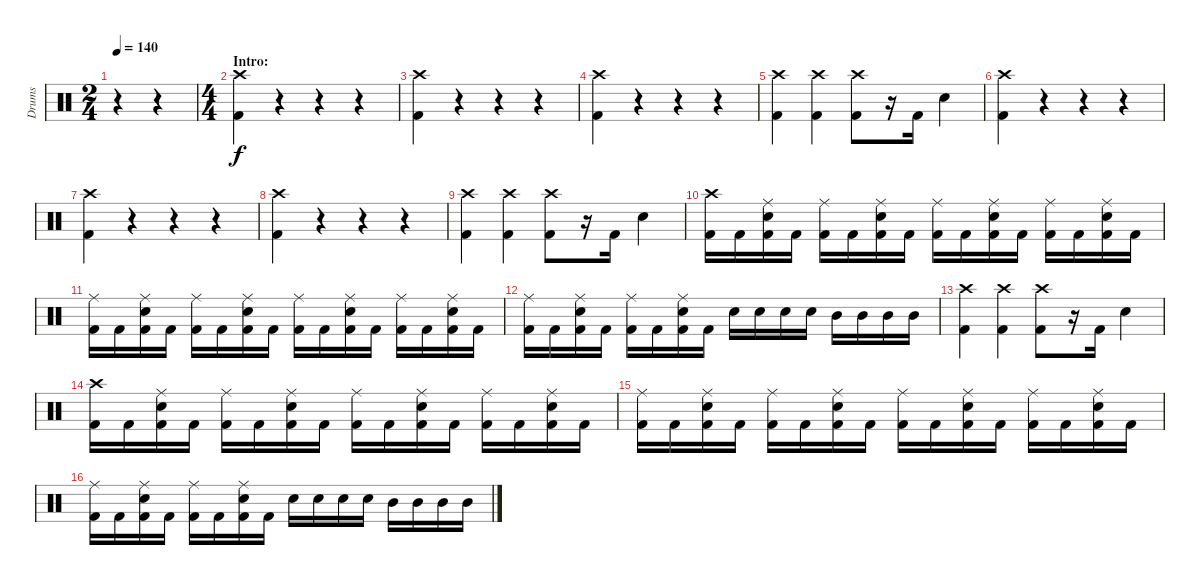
\track ("Drums" "Drums") {instrument percussion}
\staff {score}
\articulation defaults
\ts (2 4)
\tempo 140
\clef neutral
\ks c
r.4{dy f} r.4 |
\ts (4 4)
\section ("" "Intro:")
("Crash high (hit)" "Kick (hit) 2").4 r.4 r.4 r.4 |
("Crash high (hit)" "Kick (hit) 2").4 r.4 r.4 r.4 |
("Crash high (hit)" "Kick (hit) 2").4 r.4 r.4 r.4 |
("Crash high (hit)" "Kick (hit) 2").4 ("Crash high (hit)" "Kick (hit) 2").4 ("Crash high (hit)" "Kick (hit) 2").8 r.16 "Kick (hit) 2".16 "Electric Snare (hit)".4 |
("Crash high (hit)" "Kick (hit) 2").4 r.4 r.4 r.4 |
("Crash high (hit)" "Kick (hit) 2").4 r.4 r.4 r.4 |
("Crash high (hit)" "Kick (hit) 2").4 r.4 r.4 r.4 |
("Crash high (hit)" "Kick (hit) 2").4 ("Crash high (hit)" "Kick (hit) 2").4 ("Crash high (hit)" "Kick (hit) 2").8 r.16 "Kick (hit) 2".16 "Electric Snare (hit)".4 |
("Crash high (hit)" "Kick (hit) 2").16 "Kick (hit) 2".16 ("Ride (middle)" "Electric Snare (hit)" "Kick (hit) 2").16 "Kick (hit) 2".16 ("Ride (middle)" "Kick (hit) 2").16 "Kick (hit) 2".16 ("Ride (middle)" "Electric Snare (hit)" "Kick (hit) 2").16 "Kick (hit) 2".16 ("Ride (middle)" "Kick (hit) 2").16 "Kick (hit) 2".16 ("Ride (middle)" "Electric Snare (hit)" "Kick (hit) 2").16 "Kick (hit) 2".16 ("Ride (middle)" "Kick (hit) 2").16 "Kick (hit) 2".16 ("Ride (middle)" "Electric Snare (hit)" "Kick (hit) 2").16 "Kick (hit) 2".16 |
("Ride (middle)" "Kick (hit) 2").16 "Kick (hit) 2".16 ("Ride (middle)" "Electric Snare (hit)" "Kick (hit) 2").16 "Kick (hit) 2".16 ("Ride (middle)" "Kick (hit) 2").16 "Kick (hit) 2".16 ("Ride (middle)" "Electric Snare (hit)" "Kick (hit) 2").16 "Kick (hit) 2".16 ("Ride (middle)" "Kick (hit) 2").16 "Kick (hit) 2".16 ("Ride (middle)" "Electric Snare (hit)" "Kick (hit) 2").16 "Kick (hit) 2".16 ("Ride (middle)" "Kick (hit) 2").16 "Kick (hit) 2".16 ("Ride (middle)" "Electric Snare (hit)" "Kick (hit) 2").16 "Kick (hit) 2".16 |
("Ride (middle)" "Kick (hit) 2").16 "Kick (hit) 2".16 ("Ride (middle)" "Electric Snare (hit)" "Kick (hit) 2").16 "Kick (hit) 2".16 ("Ride (middle)" "Kick (hit) 2").16 "Kick (hit) 2".16 ("Ride (middle)" "Electric Snare (hit)" "Kick (hit) 2").16 "Kick (hit) 2".16 "Electric Snare (hit)".16 "Electric Snare (hit)".16 "Electric Snare (hit)".16 "Electric Snare (hit)".16 "Mid Tom (hit)".16 "Mid Tom (hit)".16 "Mid Tom (hit)".16 "Mid Tom (hit)".16 |
("Crash high (hit)" "Kick (hit) 2").4 ("Crash high (hit)" "Kick (hit) 2").4 ("Crash high (hit)" "Kick (hit) 2").8 r.16 "Kick (hit) 2".16 "Electric Snare (hit)".4 |
("Crash high (hit)" "Kick (hit) 2").16 "Kick (hit) 2".16 ("Ride (middle)" "Electric Snare (hit)" "Kick (hit) 2").16 "Kick (hit) 2".16 ("Ride (middle)" "Kick (hit) 2").16 "Kick (hit) 2".16 ("Ride (middle)" "Electric Snare (hit)" "Kick (hit) 2").16 "Kick (hit) 2".16 ("Ride (middle)" "Kick (hit) 2").16 "Kick (hit) 2".16 ("Ride (middle)" "Electric Snare (hit)" "Kick (hit) 2").16 "Kick (hit) 2".16 ("Ride (middle)" "Kick (hit) 2").16 "Kick (hit) 2".16 ("Ride (middle)" "Electric Snare (hit)" "Kick (hit) 2").16 "Kick (hit) 2".16 |
("Ride (middle)" "Kick (hit) 2").16 "Kick (hit) 2".16 ("Ride (middle)" "Electric Snare (hit)" "Kick (hit) 2").16 "Kick (hit) 2".16 ("Ride (middle)" "Kick (hit) 2").16 "Kick (hit) 2".16 ("Ride (middle)" "Electric Snare (hit)" "Kick (hit) 2").16 "Kick (hit) 2".16 ("Ride (middle)" "Kick (hit) 2").16 "Kick (hit) 2".16 ("Ride (middle)" "Electric Snare (hit)" "Kick (hit) 2").16 "Kick (hit) 2".16 ("Ride (middle)" "Kick (hit) 2").16 "Kick (hit) 2".16 ("Ride (middle)" "Electric Snare (hit)" "Kick (hit) 2").16 "Kick (hit) 2".16 |
("Ride (middle)" "Kick (hit) 2").16 "Kick (hit) 2".16 ("Ride (middle)" "Electric Snare (hit)" "Kick (hit) 2").16 "Kick (hit) 2".16 ("Ride (middle)" "Kick (hit) 2").16 "Kick (hit) 2".16 ("Ride (middle)" "Electric Snare (hit)" "Kick (hit) 2").16 "Kick (hit) 2".16 "Electric Snare (hit)".16 "Electric Snare (hit)".16 "Electric Snare (hit)".16 "Electric Snare (hit)".16 "Mid Tom (hit)".16 "Mid Tom (hit)".16 "Mid Tom (hit)".16 "Mid Tom (hit)".16
